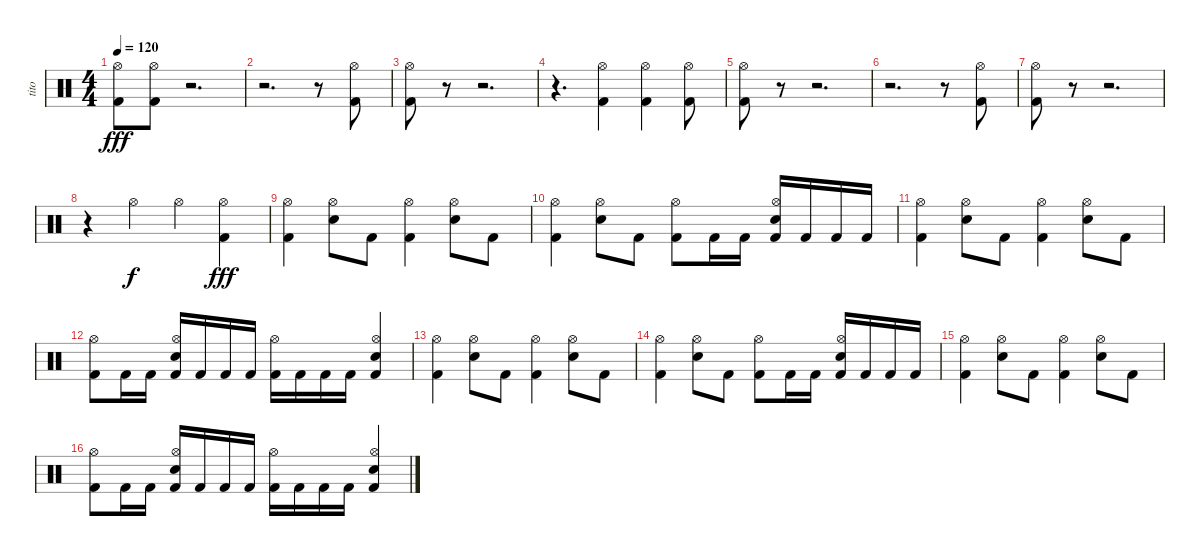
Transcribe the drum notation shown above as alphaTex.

\track ("tito" "tito") {instrument percussion}
\staff {score}
\articulation defaults
\ts (4 4)
\tempo 120
\clef neutral
\ks c
("Kick (hit) 2" "Hi-Hat (open)").8{dy fff} ("Kick (hit) 2" "Hi-Hat (open)").8 r.2{d} |
r.2{d} r.8 ("Kick (hit) 2" "Hi-Hat (open)").8 |
("Kick (hit) 2" "Hi-Hat (open)").8 r.8 r.2{d} |
r.4{d} ("Kick (hit) 2" "Hi-Hat (open)").4 ("Kick (hit) 2" "Hi-Hat (open)").4 ("Kick (hit) 2" "Hi-Hat (open)").8 |
("Kick (hit) 2" "Hi-Hat (open)").8 r.8 r.2{d} |
r.2{d} r.8 ("Kick (hit) 2" "Hi-Hat (open)").8 |
("Kick (hit) 2" "Hi-Hat (open)").8 r.8 r.2{d} |
r.4 "Hi-Hat (open)".4{dy f} "Hi-Hat (open)".4 ("Kick (hit) 2" "Hi-Hat (open)").4{dy fff} |
("Kick (hit) 2" "Hi-Hat (open)").4 ("Electric Snare (hit)" "Hi-Hat (open)").8 "Kick (hit) 2".8 ("Kick (hit) 2" "Hi-Hat (open)").4 ("Electric Snare (hit)" "Hi-Hat (open)").8 "Kick (hit) 2".8 |
("Kick (hit) 2" "Hi-Hat (open)").4 ("Electric Snare (hit)" "Hi-Hat (open)").8 "Kick (hit) 2".8 ("Kick (hit) 2" "Hi-Hat (open)").8 "Kick (hit) 2".16 "Kick (hit) 2".16 ("Kick (hit) 2" "Electric Snare (hit)" "Hi-Hat (open)").16 "Kick (hit) 2".16 "Kick (hit) 2".16 "Kick (hit) 2".16 |
("Kick (hit) 2" "Hi-Hat (open)").4 ("Electric Snare (hit)" "Hi-Hat (open)").8 "Kick (hit) 2".8 ("Kick (hit) 2" "Hi-Hat (open)").4 ("Electric Snare (hit)" "Hi-Hat (open)").8 "Kick (hit) 2".8 |
("Kick (hit) 2" "Hi-Hat (open)").8 "Kick (hit) 2".16 "Kick (hit) 2".16 ("Kick (hit) 2" "Electric Snare (hit)" "Hi-Hat (open)").16 "Kick (hit) 2".16 "Kick (hit) 2".16 "Kick (hit) 2".16 ("Kick (hit) 2" "Hi-Hat (open)").16 "Kick (hit) 2".16 "Kick (hit) 2".16 "Kick (hit) 2".16 ("Kick (hit) 2" "Electric Snare (hit)" "Hi-Hat (open)").4 |
("Kick (hit) 2" "Hi-Hat (open)").4 ("Electric Snare (hit)" "Hi-Hat (open)").8 "Kick (hit) 2".8 ("Kick (hit) 2" "Hi-Hat (open)").4 ("Electric Snare (hit)" "Hi-Hat (open)").8 "Kick (hit) 2".8 |
("Kick (hit) 2" "Hi-Hat (open)").4 ("Electric Snare (hit)" "Hi-Hat (open)").8 "Kick (hit) 2".8 ("Kick (hit) 2" "Hi-Hat (open)").8 "Kick (hit) 2".16 "Kick (hit) 2".16 ("Kick (hit) 2" "Electric Snare (hit)" "Hi-Hat (open)").16 "Kick (hit) 2".16 "Kick (hit) 2".16 "Kick (hit) 2".16 |
("Kick (hit) 2" "Hi-Hat (open)").4 ("Electric Snare (hit)" "Hi-Hat (open)").8 "Kick (hit) 2".8 ("Kick (hit) 2" "Hi-Hat (open)").4 ("Electric Snare (hit)" "Hi-Hat (open)").8 "Kick (hit) 2".8 |
("Kick (hit) 2" "Hi-Hat (open)").8 "Kick (hit) 2".16 "Kick (hit) 2".16 ("Kick (hit) 2" "Electric Snare (hit)" "Hi-Hat (open)").16 "Kick (hit) 2".16 "Kick (hit) 2".16 "Kick (hit) 2".16 ("Kick (hit) 2" "Hi-Hat (open)").16 "Kick (hit) 2".16 "Kick (hit) 2".16 "Kick (hit) 2".16 ("Kick (hit) 2" "Electric Snare (hit)" "Hi-Hat (open)").4
